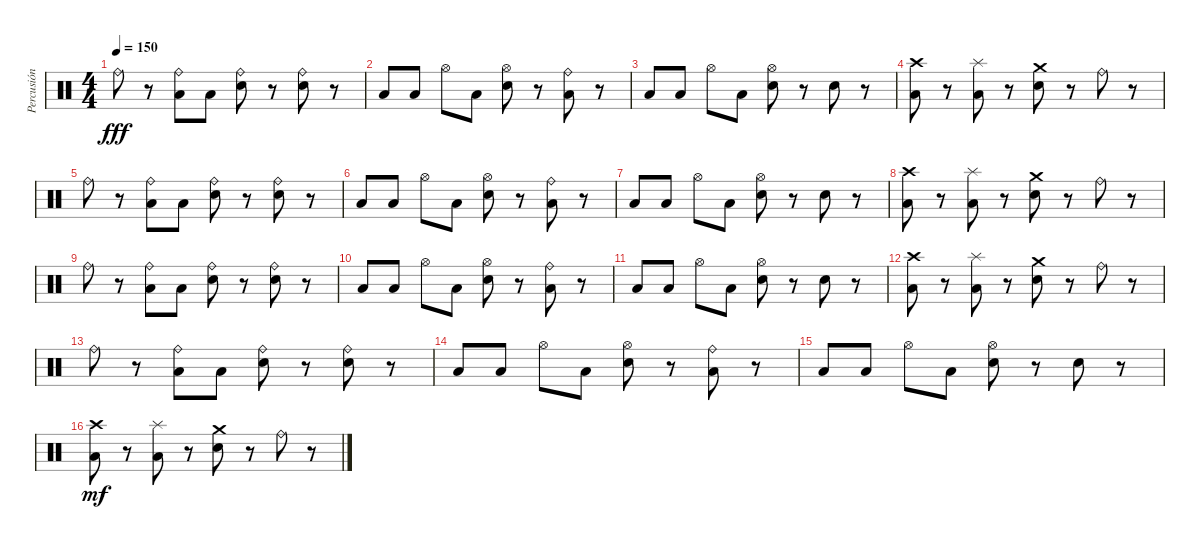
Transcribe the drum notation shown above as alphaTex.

\track ("Percusión" "Percusión") {instrument percussion}
\staff {score}
\articulation defaults
\ts (4 4)
\tempo 150
\clef neutral
\ks c "Ride (bell)".8{dy fff}
r.8 ("Ride (bell)" "Low Tom (hit)").8 "Low Tom (hit)".8 ("Ride (bell)" "Snare (hit) 2").8 r.8 ("Ride (bell)" "Snare (hit) 2").8 r.8 |
"Low Tom (hit)".8 "Low Tom (hit)".8 "Hi-Hat (open)".8 "Low Tom (hit)".8 ("Hi-Hat (open)" "Snare (hit) 2").8 r.8 ("Ride (bell)" "Low Tom (hit)").8 r.8 |
"Low Tom (hit)".8 "Low Tom (hit)".8 "Hi-Hat (open)".8 "Low Tom (hit)".8 ("Hi-Hat (open)" "Snare (hit) 2").8 r.8 "Snare (hit) 2".8 r.8 |
("Crash high (hit)" "Low Tom (hit)").8 r.8 ("Splash (hit)" "Low Tom (hit)").8 r.8 ("Crash medium (hit)" "Snare (hit) 2").8 r.8 "Ride (bell)".8 r.8 |
"Ride (bell)".8 r.8 ("Ride (bell)" "Low Tom (hit)").8 "Low Tom (hit)".8 ("Ride (bell)" "Snare (hit) 2").8 r.8 ("Ride (bell)" "Snare (hit) 2").8 r.8 |
"Low Tom (hit)".8 "Low Tom (hit)".8 "Hi-Hat (open)".8 "Low Tom (hit)".8 ("Hi-Hat (open)" "Snare (hit) 2").8 r.8 ("Ride (bell)" "Low Tom (hit)").8 r.8 |
"Low Tom (hit)".8 "Low Tom (hit)".8 "Hi-Hat (open)".8 "Low Tom (hit)".8 ("Hi-Hat (open)" "Snare (hit) 2").8 r.8 "Snare (hit) 2".8 r.8 |
("Crash high (hit)" "Low Tom (hit)").8 r.8 ("Splash (hit)" "Low Tom (hit)").8 r.8 ("Crash medium (hit)" "Snare (hit) 2").8 r.8 "Ride (bell)".8 r.8 |
"Ride (bell)".8 r.8 ("Ride (bell)" "Low Tom (hit)").8 "Low Tom (hit)".8 ("Ride (bell)" "Snare (hit) 2").8 r.8 ("Ride (bell)" "Snare (hit) 2").8 r.8 |
"Low Tom (hit)".8 "Low Tom (hit)".8 "Hi-Hat (open)".8 "Low Tom (hit)".8 ("Hi-Hat (open)" "Snare (hit) 2").8 r.8 ("Ride (bell)" "Low Tom (hit)").8 r.8 |
"Low Tom (hit)".8 "Low Tom (hit)".8 "Hi-Hat (open)".8 "Low Tom (hit)".8 ("Hi-Hat (open)" "Snare (hit) 2").8 r.8 "Snare (hit) 2".8 r.8 |
("Crash high (hit)" "Low Tom (hit)").8 r.8 ("Splash (hit)" "Low Tom (hit)").8 r.8 ("Crash medium (hit)" "Snare (hit) 2").8 r.8 "Ride (bell)".8 r.8 |
"Ride (bell)".8 r.8 ("Ride (bell)" "Low Tom (hit)").8 "Low Tom (hit)".8 ("Ride (bell)" "Snare (hit) 2").8 r.8 ("Ride (bell)" "Snare (hit) 2").8 r.8 |
"Low Tom (hit)".8 "Low Tom (hit)".8 "Hi-Hat (open)".8 "Low Tom (hit)".8 ("Hi-Hat (open)" "Snare (hit) 2").8 r.8 ("Ride (bell)" "Low Tom (hit)").8 r.8 |
"Low Tom (hit)".8 "Low Tom (hit)".8 "Hi-Hat (open)".8 "Low Tom (hit)".8 ("Hi-Hat (open)" "Snare (hit) 2").8 r.8 "Snare (hit) 2".8 r.8 |
("Crash high (hit)" "Low Tom (hit)").8{dy mf} r.8 ("Splash (hit)" "Low Tom (hit)").8 r.8 ("Crash medium (hit)" "Snare (hit) 2").8 r.8 "Ride (bell)".8 r.8
